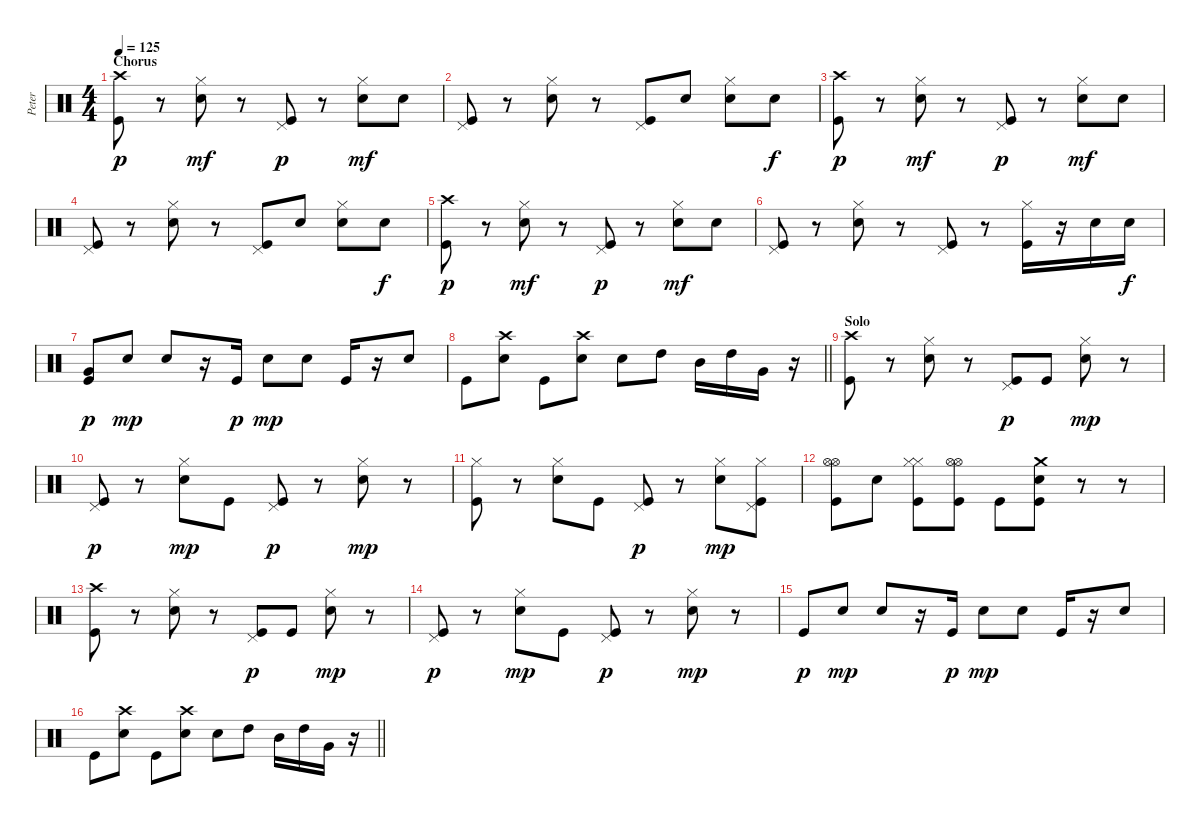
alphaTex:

\track ("Peter" "Peter") {instrument percussion}
\staff {score}
\articulation defaults
\ts (4 4)
\section ("" "Chorus")
\tempo 125
\clef neutral
\ks c
("Crash high (hit)" "Kick (hit)").8{dy p} r.8 ("Hi-Hat (closed)" "Snare (hit) 2").8{dy mf} r.8 ("Pedal Hi-Hat (hit)" "Kick (hit)").8{dy p} r.8 ("Hi-Hat (closed)" "Snare (hit) 2").8{dy mf} "Snare (hit) 2".8 |
("Pedal Hi-Hat (hit)" "Kick (hit)").8 r.8 ("Hi-Hat (closed)" "Snare (hit) 2").8 r.8 ("Pedal Hi-Hat (hit)" "Kick (hit)").8 "Snare (hit) 2".8 ("Hi-Hat (closed)" "Snare (hit) 2").8 "Snare (hit) 2".8{dy f} |
("Crash high (hit)" "Kick (hit)").8{dy p} r.8 ("Hi-Hat (closed)" "Snare (hit) 2").8{dy mf} r.8 ("Pedal Hi-Hat (hit)" "Kick (hit)").8{dy p} r.8 ("Hi-Hat (closed)" "Snare (hit) 2").8{dy mf} "Snare (hit) 2".8 |
("Pedal Hi-Hat (hit)" "Kick (hit)").8 r.8 ("Hi-Hat (closed)" "Snare (hit) 2").8 r.8 ("Pedal Hi-Hat (hit)" "Kick (hit)").8 "Snare (hit) 2".8 ("Hi-Hat (closed)" "Snare (hit) 2").8 "Snare (hit) 2".8{dy f} |
("Crash high (hit)" "Kick (hit)").8{dy p} r.8 ("Hi-Hat (closed)" "Snare (hit) 2").8{dy mf} r.8 ("Pedal Hi-Hat (hit)" "Kick (hit)").8{dy p} r.8 ("Hi-Hat (closed)" "Snare (hit) 2").8{dy mf} "Snare (hit) 2".8 |
("Pedal Hi-Hat (hit)" "Kick (hit)").8 r.8 ("Hi-Hat (closed)" "Snare (hit) 2").8 r.8 ("Pedal Hi-Hat (hit)" "Kick (hit)").8 r.8 ("Hi-Hat (closed)" "Kick (hit)").16 r.16 "Snare (hit) 2".16 "Snare (hit) 2".16{dy f} |
("Very Low Tom (hit)" "Kick (hit)").8{dy p} "Snare (hit) 2".8{dy mp} "Snare (hit) 2".8 r.16 "Kick (hit)".16{dy p} "Snare (hit) 2".8{dy mp} "Snare (hit) 2".8 "Kick (hit)".16 r.16 "Snare (hit) 2".8 |
\barLineRight lightlight "Kick (hit)".8
("Crash high (hit)" "Snare (hit) 2").8 "Kick (hit)".8 ("Crash high (hit)" "Snare (hit) 2").8 "Snare (hit) 2".8 "High Tom (hit)".8 "Mid Tom (hit)".16 "High Tom (hit)".16 "Very Low Tom (hit)".16 r.16 |
\section ("" "Solo")
("Crash high (hit)" "Kick (hit)").8 r.8 ("Hi-Hat (closed)" "Snare (hit) 2").8 r.8 ("Pedal Hi-Hat (hit)" "Kick (hit)").8{dy p} "Kick (hit)".8 ("Hi-Hat (closed)" "Snare (hit) 2").8{dy mp} r.8 |
("Pedal Hi-Hat (hit)" "Kick (hit)").8{dy p} r.8 ("Hi-Hat (closed)" "Snare (hit) 2").8{dy mp} "Kick (hit)".8 ("Pedal Hi-Hat (hit)" "Kick (hit)").8{dy p} r.8 ("Hi-Hat (closed)" "Snare (hit) 2").8{dy mp} r.8 |
("Hi-Hat (closed)" "Kick (hit)").8 r.8 ("Hi-Hat (closed)" "Snare (hit) 2").8 "Kick (hit)".8 ("Pedal Hi-Hat (hit)" "Kick (hit)").8{dy p} r.8 ("Hi-Hat (closed)" "Snare (hit) 2").8{dy mp} ("Hi-Hat (closed)" "Pedal Hi-Hat (hit)" "Kick (hit)").8 |
("Hi-Hat (open)" "Hi-Hat (open)" "Kick (hit)").8 "Snare (hit) 2".8 ("Hi-Hat (closed)" "Hi-Hat (closed)" "Kick (hit)").8 ("Hi-Hat (open)" "Hi-Hat (open)" "Kick (hit)").8 "Kick (hit)".8 ("Crash medium (hit)" "Snare (hit) 2" "Kick (hit)").8 r.8 r.8 |
("Crash high (hit)" "Kick (hit)").8 r.8 ("Hi-Hat (closed)" "Snare (hit) 2").8 r.8 ("Pedal Hi-Hat (hit)" "Kick (hit)").8{dy p} "Kick (hit)".8 ("Hi-Hat (closed)" "Snare (hit) 2").8{dy mp} r.8 |
("Pedal Hi-Hat (hit)" "Kick (hit)").8{dy p} r.8 ("Hi-Hat (closed)" "Snare (hit) 2").8{dy mp} "Kick (hit)".8 ("Pedal Hi-Hat (hit)" "Kick (hit)").8{dy p} r.8 ("Hi-Hat (closed)" "Snare (hit) 2").8{dy mp} r.8 |
"Kick (hit)".8{dy p} "Snare (hit) 2".8{dy mp} "Snare (hit) 2".8 r.16 "Kick (hit)".16{dy p} "Snare (hit) 2".8{dy mp} "Snare (hit) 2".8 "Kick (hit)".16 r.16 "Snare (hit) 2".8 |
\barLineRight lightlight "Kick (hit)".8
("Crash high (hit)" "Snare (hit) 2").8 "Kick (hit)".8 ("Crash high (hit)" "Snare (hit) 2").8 "Snare (hit) 2".8 "High Tom (hit)".8 "Mid Tom (hit)".16 "High Tom (hit)".16 "Very Low Tom (hit)".16 r.16
